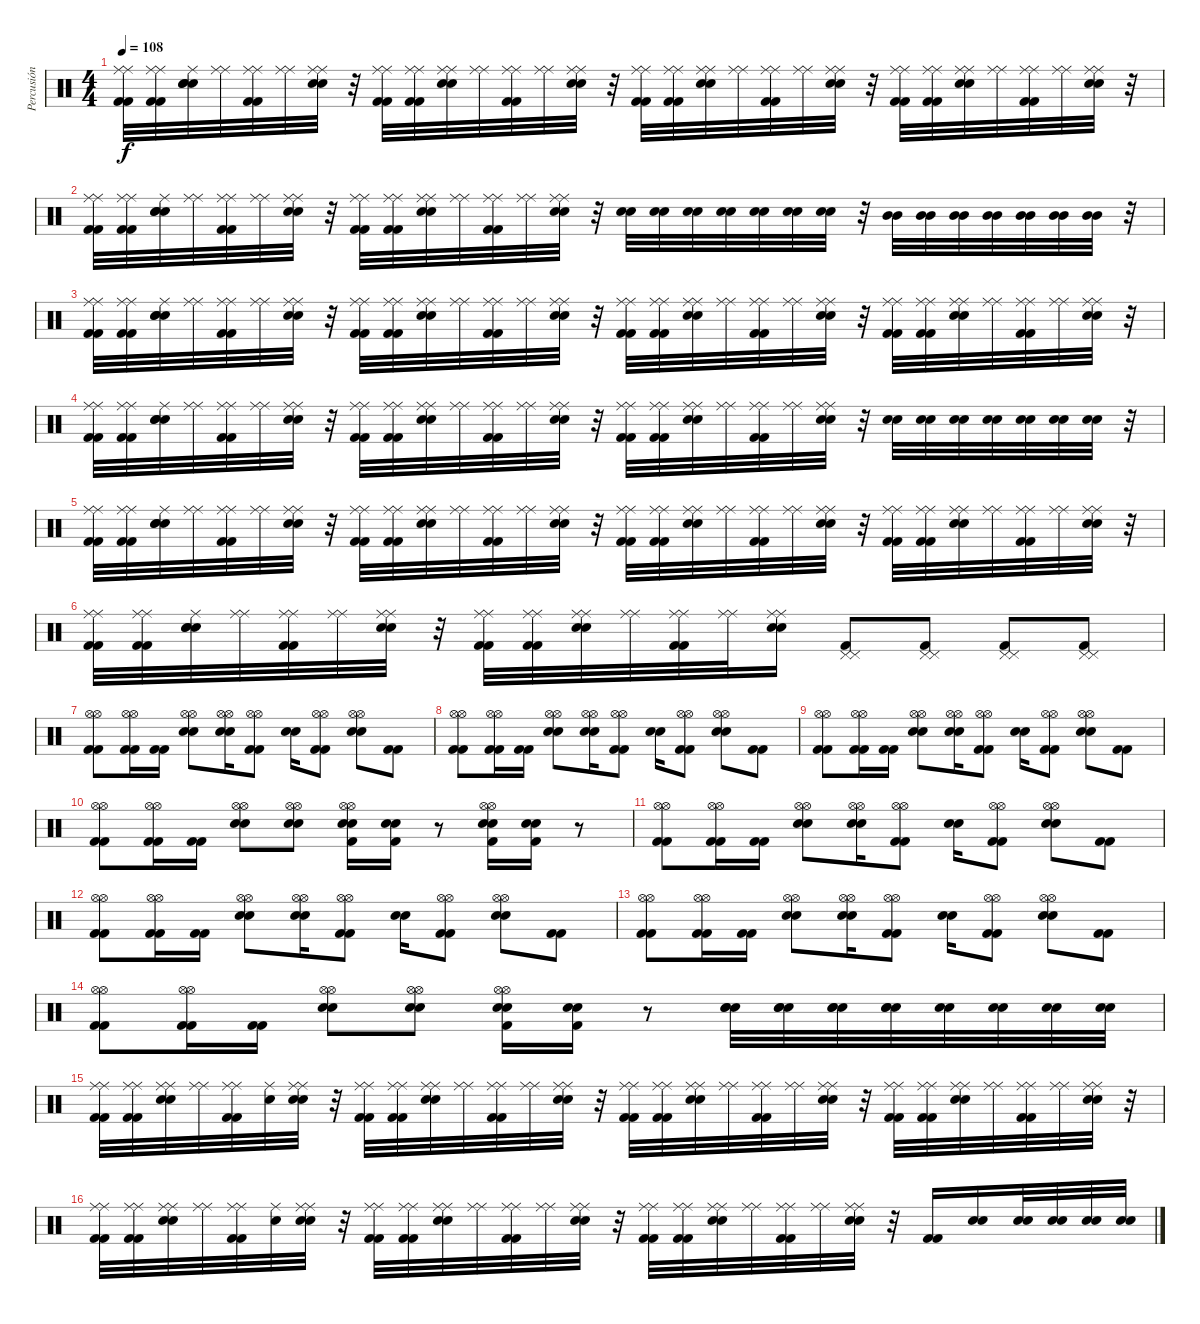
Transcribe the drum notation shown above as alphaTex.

\track ("Percusión" "Percusión") {instrument percussion}
\staff {score}
\articulation defaults
\ts (4 4)
\tempo 108
\clef neutral
\ks c
("Kick (hit) 2" "Kick (hit) 2" "Ride (middle)" "Ride (middle)").32{dy f} ("Kick (hit) 2" "Kick (hit) 2" "Ride (middle)" "Ride (middle)").32 ("Snare (hit) 2" "Snare (hit) 2" "Ride (middle)" "Snare (hit)").32 ("Ride (middle)" "Ride (middle)").32 ("Kick (hit) 2" "Kick (hit) 2" "Ride (middle)" "Ride (middle)").32 ("Ride (middle)" "Ride (middle)").32 ("Snare (hit) 2" "Snare (hit) 2" "Ride (middle)" "Ride (middle)").32 r.32 ("Kick (hit) 2" "Kick (hit) 2" "Ride (middle)" "Ride (middle)").32 ("Kick (hit) 2" "Kick (hit) 2" "Ride (middle)" "Ride (middle)").32 ("Snare (hit) 2" "Snare (hit) 2" "Ride (middle)" "Ride (middle)").32 ("Ride (middle)" "Ride (middle)").32 ("Kick (hit) 2" "Kick (hit) 2" "Ride (middle)" "Ride (middle)").32 ("Ride (middle)" "Ride (middle)").32 ("Snare (hit) 2" "Snare (hit) 2" "Ride (middle)" "Ride (middle)").32 r.32 ("Kick (hit) 2" "Kick (hit) 2" "Ride (middle)" "Ride (middle)").32 ("Kick (hit) 2" "Kick (hit) 2" "Ride (middle)" "Ride (middle)").32 ("Snare (hit) 2" "Snare (hit) 2" "Ride (middle)" "Ride (middle)").32 ("Ride (middle)" "Ride (middle)").32 ("Kick (hit) 2" "Kick (hit) 2" "Ride (middle)" "Ride (middle)").32 ("Ride (middle)" "Ride (middle)").32 ("Snare (hit) 2" "Snare (hit) 2" "Ride (middle)" "Ride (middle)").32 r.32 ("Kick (hit) 2" "Kick (hit) 2" "Ride (middle)" "Ride (middle)").32 ("Kick (hit) 2" "Kick (hit) 2" "Ride (middle)" "Ride (middle)").32 ("Snare (hit) 2" "Snare (hit) 2" "Ride (middle)" "Ride (middle)").32 ("Ride (middle)" "Ride (middle)").32 ("Kick (hit) 2" "Kick (hit) 2" "Ride (middle)" "Ride (middle)").32 ("Ride (middle)" "Ride (middle)").32 ("Snare (hit) 2" "Snare (hit) 2" "Ride (middle)" "Ride (middle)").32 r.32 |
("Kick (hit) 2" "Kick (hit) 2" "Ride (middle)" "Ride (middle)").32 ("Kick (hit) 2" "Kick (hit) 2" "Ride (middle)" "Ride (middle)").32 ("Snare (hit) 2" "Snare (hit) 2" "Ride (middle)" "Snare (hit)").32 ("Ride (middle)" "Ride (middle)").32 ("Kick (hit) 2" "Kick (hit) 2" "Ride (middle)" "Ride (middle)").32 ("Ride (middle)" "Ride (middle)").32 ("Snare (hit) 2" "Snare (hit) 2" "Ride (middle)" "Ride (middle)").32 r.32 ("Kick (hit) 2" "Kick (hit) 2" "Ride (middle)" "Ride (middle)").32 ("Kick (hit) 2" "Kick (hit) 2" "Ride (middle)" "Ride (middle)").32 ("Snare (hit) 2" "Snare (hit) 2" "Ride (middle)" "Ride (middle)").32 ("Ride (middle)" "Ride (middle)").32 ("Kick (hit) 2" "Kick (hit) 2" "Ride (middle)" "Ride (middle)").32 ("Ride (middle)" "Ride (middle)").32 ("Snare (hit) 2" "Snare (hit) 2" "Ride (middle)" "Ride (middle)").32 r.32 ("Snare (hit) 2" "Snare (hit) 2").32 ("Snare (hit) 2" "Snare (hit) 2").32 ("Snare (hit) 2" "Snare (hit) 2").32 ("Snare (hit) 2" "Snare (hit) 2").32 ("Snare (hit) 2" "Snare (hit) 2").32 ("Snare (hit) 2" "Snare (hit) 2").32 ("Snare (hit) 2" "Snare (hit) 2").32 r.32 ("Mid Tom (hit)" "Mid Tom (hit)").32 ("Mid Tom (hit)" "Mid Tom (hit)").32 ("Mid Tom (hit)" "Mid Tom (hit)").32 ("Mid Tom (hit)" "Mid Tom (hit)").32 ("Mid Tom (hit)" "Mid Tom (hit)").32 ("Mid Tom (hit)" "Mid Tom (hit)").32 ("Mid Tom (hit)" "Mid Tom (hit)").32 r.32 |
("Kick (hit) 2" "Kick (hit) 2" "Ride (middle)" "Ride (middle)").32 ("Kick (hit) 2" "Kick (hit) 2" "Ride (middle)" "Ride (middle)").32 ("Snare (hit) 2" "Snare (hit) 2" "Ride (middle)" "Snare (hit)").32 ("Ride (middle)" "Ride (middle)").32 ("Kick (hit) 2" "Kick (hit) 2" "Ride (middle)" "Ride (middle)").32 ("Ride (middle)" "Ride (middle)").32 ("Snare (hit) 2" "Snare (hit) 2" "Ride (middle)" "Ride (middle)").32 r.32 ("Kick (hit) 2" "Kick (hit) 2" "Ride (middle)" "Ride (middle)").32 ("Kick (hit) 2" "Kick (hit) 2" "Ride (middle)" "Ride (middle)").32 ("Snare (hit) 2" "Snare (hit) 2" "Ride (middle)" "Ride (middle)").32 ("Ride (middle)" "Ride (middle)").32 ("Kick (hit) 2" "Kick (hit) 2" "Ride (middle)" "Ride (middle)").32 ("Ride (middle)" "Ride (middle)").32 ("Snare (hit) 2" "Snare (hit) 2" "Ride (middle)" "Ride (middle)").32 r.32 ("Kick (hit) 2" "Kick (hit) 2" "Ride (middle)" "Ride (middle)").32 ("Kick (hit) 2" "Kick (hit) 2" "Ride (middle)" "Ride (middle)").32 ("Snare (hit) 2" "Snare (hit) 2" "Ride (middle)" "Ride (middle)").32 ("Ride (middle)" "Ride (middle)").32 ("Kick (hit) 2" "Kick (hit) 2" "Ride (middle)" "Ride (middle)").32 ("Ride (middle)" "Ride (middle)").32 ("Snare (hit) 2" "Snare (hit) 2" "Ride (middle)" "Ride (middle)").32 r.32 ("Kick (hit) 2" "Kick (hit) 2" "Ride (middle)" "Ride (middle)").32 ("Kick (hit) 2" "Kick (hit) 2" "Ride (middle)" "Ride (middle)").32 ("Snare (hit) 2" "Snare (hit) 2" "Ride (middle)" "Ride (middle)").32 ("Ride (middle)" "Ride (middle)").32 ("Kick (hit) 2" "Kick (hit) 2" "Ride (middle)" "Ride (middle)").32 ("Ride (middle)" "Ride (middle)").32 ("Snare (hit) 2" "Snare (hit) 2" "Ride (middle)" "Ride (middle)").32 r.32 |
("Kick (hit) 2" "Kick (hit) 2" "Ride (middle)" "Ride (middle)").32 ("Kick (hit) 2" "Kick (hit) 2" "Ride (middle)" "Ride (middle)").32 ("Snare (hit) 2" "Snare (hit) 2" "Ride (middle)" "Snare (hit)").32 ("Ride (middle)" "Ride (middle)").32 ("Kick (hit) 2" "Kick (hit) 2" "Ride (middle)" "Ride (middle)").32 ("Ride (middle)" "Ride (middle)").32 ("Snare (hit) 2" "Snare (hit) 2" "Ride (middle)" "Ride (middle)").32 r.32 ("Kick (hit) 2" "Kick (hit) 2" "Ride (middle)" "Ride (middle)").32 ("Kick (hit) 2" "Kick (hit) 2" "Ride (middle)" "Ride (middle)").32 ("Snare (hit) 2" "Snare (hit) 2" "Ride (middle)" "Ride (middle)").32 ("Ride (middle)" "Ride (middle)").32 ("Kick (hit) 2" "Kick (hit) 2" "Ride (middle)" "Ride (middle)").32 ("Ride (middle)" "Ride (middle)").32 ("Snare (hit) 2" "Snare (hit) 2" "Ride (middle)" "Ride (middle)").32 r.32 ("Kick (hit) 2" "Kick (hit) 2" "Ride (middle)" "Ride (middle)").32 ("Kick (hit) 2" "Kick (hit) 2" "Ride (middle)" "Ride (middle)").32 ("Snare (hit) 2" "Snare (hit) 2" "Ride (middle)" "Ride (middle)").32 ("Ride (middle)" "Ride (middle)").32 ("Kick (hit) 2" "Kick (hit) 2" "Ride (middle)" "Ride (middle)").32 ("Ride (middle)" "Ride (middle)").32 ("Snare (hit) 2" "Snare (hit) 2" "Ride (middle)" "Ride (middle)").32 r.32 ("Snare (hit) 2" "Snare (hit) 2").32 ("Snare (hit) 2" "Snare (hit) 2").32 ("Snare (hit) 2" "Snare (hit) 2").32 ("Snare (hit) 2" "Snare (hit) 2").32 ("Snare (hit) 2" "Snare (hit) 2").32 ("Snare (hit) 2" "Snare (hit) 2").32 ("Snare (hit) 2" "Snare (hit) 2").32 r.32 |
("Kick (hit) 2" "Kick (hit) 2" "Ride (middle)" "Ride (middle)").32 ("Kick (hit) 2" "Kick (hit) 2" "Ride (middle)" "Ride (middle)").32 ("Snare (hit) 2" "Snare (hit) 2" "Ride (middle)" "Snare (hit)").32 ("Ride (middle)" "Ride (middle)").32 ("Kick (hit) 2" "Kick (hit) 2" "Ride (middle)" "Ride (middle)").32 ("Ride (middle)" "Ride (middle)").32 ("Snare (hit) 2" "Snare (hit) 2" "Ride (middle)" "Ride (middle)").32 r.32 ("Kick (hit) 2" "Kick (hit) 2" "Ride (middle)" "Ride (middle)").32 ("Kick (hit) 2" "Kick (hit) 2" "Ride (middle)" "Ride (middle)").32 ("Snare (hit) 2" "Snare (hit) 2" "Ride (middle)" "Ride (middle)").32 ("Ride (middle)" "Ride (middle)").32 ("Kick (hit) 2" "Kick (hit) 2" "Ride (middle)" "Ride (middle)").32 ("Ride (middle)" "Ride (middle)").32 ("Snare (hit) 2" "Snare (hit) 2" "Ride (middle)" "Ride (middle)").32 r.32 ("Kick (hit) 2" "Kick (hit) 2" "Ride (middle)" "Ride (middle)").32 ("Kick (hit) 2" "Kick (hit) 2" "Ride (middle)" "Ride (middle)").32 ("Snare (hit) 2" "Snare (hit) 2" "Ride (middle)" "Ride (middle)").32 ("Ride (middle)" "Ride (middle)").32 ("Kick (hit) 2" "Kick (hit) 2" "Ride (middle)" "Ride (middle)").32 ("Ride (middle)" "Ride (middle)").32 ("Snare (hit) 2" "Snare (hit) 2" "Ride (middle)" "Ride (middle)").32 r.32 ("Kick (hit) 2" "Kick (hit) 2" "Ride (middle)" "Ride (middle)").32 ("Kick (hit) 2" "Kick (hit) 2" "Ride (middle)" "Ride (middle)").32 ("Snare (hit) 2" "Snare (hit) 2" "Ride (middle)" "Ride (middle)").32 ("Ride (middle)" "Ride (middle)").32 ("Kick (hit) 2" "Kick (hit) 2" "Ride (middle)" "Ride (middle)").32 ("Ride (middle)" "Ride (middle)").32 ("Snare (hit) 2" "Snare (hit) 2" "Ride (middle)" "Ride (middle)").32 r.32 |
("Kick (hit) 2" "Kick (hit) 2" "Ride (middle)" "Ride (middle)").32 ("Kick (hit) 2" "Kick (hit) 2" "Ride (middle)" "Ride (middle)").32 ("Snare (hit) 2" "Snare (hit) 2" "Ride (middle)" "Snare (hit)").32 ("Ride (middle)" "Ride (middle)").32 ("Kick (hit) 2" "Kick (hit) 2" "Ride (middle)" "Ride (middle)").32 ("Ride (middle)" "Ride (middle)").32 ("Snare (hit) 2" "Snare (hit) 2" "Ride (middle)" "Ride (middle)").32 r.32 ("Kick (hit) 2" "Kick (hit) 2" "Ride (middle)" "Ride (middle)").32 ("Kick (hit) 2" "Kick (hit) 2" "Ride (middle)" "Ride (middle)").32 ("Snare (hit) 2" "Snare (hit) 2" "Ride (middle)" "Ride (middle)").32 ("Ride (middle)" "Ride (middle)").32 ("Kick (hit) 2" "Kick (hit) 2" "Ride (middle)" "Ride (middle)").32 ("Ride (middle)" "Ride (middle)").32 ("Snare (hit) 2" "Snare (hit) 2" "Ride (middle)" "Ride (middle)").16 ("Kick (hit) 2" "Pedal Hi-Hat (hit)" "Pedal Hi-Hat (hit)").8 ("Kick (hit) 2" "Pedal Hi-Hat (hit)" "Pedal Hi-Hat (hit)").8 ("Kick (hit) 2" "Pedal Hi-Hat (hit)" "Pedal Hi-Hat (hit)").8 ("Kick (hit) 2" "Pedal Hi-Hat (hit)" "Pedal Hi-Hat (hit)").8 |
("Kick (hit) 2" "Kick (hit) 2" "Hi-Hat (open)" "Hi-Hat (open)").8 ("Kick (hit) 2" "Kick (hit) 2" "Hi-Hat (open)" "Hi-Hat (open)").16 ("Kick (hit) 2" "Kick (hit) 2").16 ("Snare (hit) 2" "Snare (hit) 2" "Hi-Hat (open)" "Hi-Hat (open)").8 ("Snare (hit) 2" "Snare (hit) 2" "Hi-Hat (open)" "Hi-Hat (open)").16 ("Kick (hit) 2" "Kick (hit) 2" "Hi-Hat (open)" "Hi-Hat (open)").8 ("Snare (hit) 2" "Snare (hit) 2").16 ("Kick (hit) 2" "Kick (hit) 2" "Hi-Hat (open)" "Hi-Hat (open)").8 ("Snare (hit) 2" "Snare (hit) 2" "Hi-Hat (open)" "Hi-Hat (open)").8 ("Kick (hit) 2" "Kick (hit) 2").8 |
("Kick (hit) 2" "Kick (hit) 2" "Hi-Hat (open)" "Hi-Hat (open)").8 ("Kick (hit) 2" "Kick (hit) 2" "Hi-Hat (open)" "Hi-Hat (open)").16 ("Kick (hit) 2" "Kick (hit) 2").16 ("Snare (hit) 2" "Snare (hit) 2" "Hi-Hat (open)" "Hi-Hat (open)").8 ("Snare (hit) 2" "Snare (hit) 2" "Hi-Hat (open)" "Hi-Hat (open)").16 ("Kick (hit) 2" "Kick (hit) 2" "Hi-Hat (open)" "Hi-Hat (open)").8 ("Snare (hit) 2" "Snare (hit) 2").16 ("Kick (hit) 2" "Kick (hit) 2" "Hi-Hat (open)" "Hi-Hat (open)").8 ("Snare (hit) 2" "Snare (hit) 2" "Hi-Hat (open)" "Hi-Hat (open)").8 ("Kick (hit) 2" "Kick (hit) 2").8 |
("Kick (hit) 2" "Kick (hit) 2" "Hi-Hat (open)" "Hi-Hat (open)").8 ("Kick (hit) 2" "Kick (hit) 2" "Hi-Hat (open)" "Hi-Hat (open)").16 ("Kick (hit) 2" "Kick (hit) 2").16 ("Snare (hit) 2" "Snare (hit) 2" "Hi-Hat (open)" "Hi-Hat (open)").8 ("Snare (hit) 2" "Snare (hit) 2" "Hi-Hat (open)" "Hi-Hat (open)").16 ("Kick (hit) 2" "Kick (hit) 2" "Hi-Hat (open)" "Hi-Hat (open)").8 ("Snare (hit) 2" "Snare (hit) 2").16 ("Kick (hit) 2" "Kick (hit) 2" "Hi-Hat (open)" "Hi-Hat (open)").8 ("Snare (hit) 2" "Snare (hit) 2" "Hi-Hat (open)" "Hi-Hat (open)").8 ("Kick (hit) 2" "Kick (hit) 2").8 |
("Kick (hit) 2" "Kick (hit) 2" "Hi-Hat (open)" "Hi-Hat (open)").8 ("Kick (hit) 2" "Kick (hit) 2" "Hi-Hat (open)" "Hi-Hat (open)").16 ("Kick (hit) 2" "Kick (hit) 2").16 ("Snare (hit) 2" "Snare (hit) 2" "Hi-Hat (open)" "Hi-Hat (open)").8 ("Snare (hit) 2" "Snare (hit) 2" "Hi-Hat (open)" "Hi-Hat (open)").8 ("Snare (hit) 2" "Snare (hit) 2" "Kick (hit) 2" "Hi-Hat (open)" "Hi-Hat (open)").16 ("Snare (hit) 2" "Snare (hit) 2" "Kick (hit) 2").16 r.8 ("Snare (hit) 2" "Snare (hit) 2" "Kick (hit) 2" "Hi-Hat (open)" "Hi-Hat (open)").16 ("Snare (hit) 2" "Snare (hit) 2" "Kick (hit) 2").16 r.8 |
("Kick (hit) 2" "Kick (hit) 2" "Hi-Hat (open)" "Hi-Hat (open)").8 ("Kick (hit) 2" "Kick (hit) 2" "Hi-Hat (open)" "Hi-Hat (open)").16 ("Kick (hit) 2" "Kick (hit) 2").16 ("Snare (hit) 2" "Snare (hit) 2" "Hi-Hat (open)" "Hi-Hat (open)").8 ("Snare (hit) 2" "Snare (hit) 2" "Hi-Hat (open)" "Hi-Hat (open)").16 ("Kick (hit) 2" "Kick (hit) 2" "Hi-Hat (open)" "Hi-Hat (open)").8 ("Snare (hit) 2" "Snare (hit) 2").16 ("Kick (hit) 2" "Kick (hit) 2" "Hi-Hat (open)" "Hi-Hat (open)").8 ("Snare (hit) 2" "Snare (hit) 2" "Hi-Hat (open)" "Hi-Hat (open)").8 ("Kick (hit) 2" "Kick (hit) 2").8 |
("Kick (hit) 2" "Kick (hit) 2" "Hi-Hat (open)" "Hi-Hat (open)").8 ("Kick (hit) 2" "Kick (hit) 2" "Hi-Hat (open)" "Hi-Hat (open)").16 ("Kick (hit) 2" "Kick (hit) 2").16 ("Snare (hit) 2" "Snare (hit) 2" "Hi-Hat (open)" "Hi-Hat (open)").8 ("Snare (hit) 2" "Snare (hit) 2" "Hi-Hat (open)" "Hi-Hat (open)").16 ("Kick (hit) 2" "Kick (hit) 2" "Hi-Hat (open)" "Hi-Hat (open)").8 ("Snare (hit) 2" "Snare (hit) 2").16 ("Kick (hit) 2" "Kick (hit) 2" "Hi-Hat (open)" "Hi-Hat (open)").8 ("Snare (hit) 2" "Snare (hit) 2" "Hi-Hat (open)" "Hi-Hat (open)").8 ("Kick (hit) 2" "Kick (hit) 2").8 |
("Kick (hit) 2" "Kick (hit) 2" "Hi-Hat (open)" "Hi-Hat (open)").8 ("Kick (hit) 2" "Kick (hit) 2" "Hi-Hat (open)" "Hi-Hat (open)").16 ("Kick (hit) 2" "Kick (hit) 2").16 ("Snare (hit) 2" "Snare (hit) 2" "Hi-Hat (open)" "Hi-Hat (open)").8 ("Snare (hit) 2" "Snare (hit) 2" "Hi-Hat (open)" "Hi-Hat (open)").16 ("Kick (hit) 2" "Kick (hit) 2" "Hi-Hat (open)" "Hi-Hat (open)").8 ("Snare (hit) 2" "Snare (hit) 2").16 ("Kick (hit) 2" "Kick (hit) 2" "Hi-Hat (open)" "Hi-Hat (open)").8 ("Snare (hit) 2" "Snare (hit) 2" "Hi-Hat (open)" "Hi-Hat (open)").8 ("Kick (hit) 2" "Kick (hit) 2").8 |
("Kick (hit) 2" "Kick (hit) 2" "Hi-Hat (open)" "Hi-Hat (open)").8 ("Kick (hit) 2" "Kick (hit) 2" "Hi-Hat (open)" "Hi-Hat (open)").16 ("Kick (hit) 2" "Kick (hit) 2").16 ("Snare (hit) 2" "Snare (hit) 2" "Hi-Hat (open)" "Hi-Hat (open)").8 ("Snare (hit) 2" "Snare (hit) 2" "Hi-Hat (open)" "Hi-Hat (open)").8 ("Snare (hit) 2" "Snare (hit) 2" "Kick (hit) 2" "Hi-Hat (open)" "Hi-Hat (open)").16 ("Snare (hit) 2" "Snare (hit) 2" "Kick (hit) 2").16 r.8 ("Snare (hit) 2" "Snare (hit) 2" "Snare (hit) 2").32 ("Snare (hit) 2" "Snare (hit) 2" "Snare (hit) 2").32 ("Snare (hit) 2" "Snare (hit) 2" "Snare (hit) 2").32 ("Snare (hit) 2" "Snare (hit) 2" "Snare (hit) 2").32 ("Snare (hit) 2" "Snare (hit) 2").32 ("Snare (hit) 2" "Snare (hit) 2").32 ("Snare (hit) 2" "Snare (hit) 2").32 ("Snare (hit) 2" "Snare (hit) 2").32 |
("Kick (hit) 2" "Kick (hit) 2" "Ride (middle)" "Ride (middle)").32 ("Kick (hit) 2" "Kick (hit) 2" "Ride (middle)" "Ride (middle)").32 ("Snare (hit) 2" "Snare (hit) 2" "Ride (middle)" "Ride (middle)").32 ("Ride (middle)" "Ride (middle)").32 ("Kick (hit) 2" "Kick (hit) 2" "Ride (middle)" "Ride (middle)").32 ("Ride (middle)" "Snare (hit)").32 ("Snare (hit) 2" "Snare (hit) 2" "Ride (middle)" "Ride (middle)").32 r.32 ("Kick (hit) 2" "Kick (hit) 2" "Ride (middle)" "Ride (middle)").32 ("Kick (hit) 2" "Kick (hit) 2" "Ride (middle)" "Ride (middle)").32 ("Snare (hit) 2" "Snare (hit) 2" "Ride (middle)" "Ride (middle)").32 ("Ride (middle)" "Ride (middle)").32 ("Kick (hit) 2" "Kick (hit) 2" "Ride (middle)" "Ride (middle)").32 ("Ride (middle)" "Ride (middle)").32 ("Snare (hit) 2" "Snare (hit) 2" "Ride (middle)" "Ride (middle)").32 r.32 ("Kick (hit) 2" "Kick (hit) 2" "Ride (middle)" "Ride (middle)").32 ("Kick (hit) 2" "Kick (hit) 2" "Ride (middle)" "Ride (middle)").32 ("Snare (hit) 2" "Snare (hit) 2" "Ride (middle)" "Ride (middle)").32 ("Ride (middle)" "Ride (middle)").32 ("Kick (hit) 2" "Kick (hit) 2" "Ride (middle)" "Ride (middle)").32 ("Ride (middle)" "Ride (middle)").32 ("Snare (hit) 2" "Snare (hit) 2" "Ride (middle)" "Ride (middle)").32 r.32 ("Kick (hit) 2" "Kick (hit) 2" "Ride (middle)" "Ride (middle)").32 ("Kick (hit) 2" "Kick (hit) 2" "Ride (middle)" "Ride (middle)").32 ("Snare (hit) 2" "Snare (hit) 2" "Ride (middle)" "Ride (middle)").32 ("Ride (middle)" "Ride (middle)").32 ("Kick (hit) 2" "Kick (hit) 2" "Ride (middle)" "Ride (middle)").32 ("Ride (middle)" "Ride (middle)").32 ("Snare (hit) 2" "Snare (hit) 2" "Ride (middle)" "Ride (middle)").32 r.32 |
("Kick (hit) 2" "Kick (hit) 2" "Ride (middle)" "Ride (middle)").32 ("Kick (hit) 2" "Kick (hit) 2" "Ride (middle)" "Ride (middle)").32 ("Snare (hit) 2" "Snare (hit) 2" "Ride (middle)" "Ride (middle)").32 ("Ride (middle)" "Ride (middle)").32 ("Kick (hit) 2" "Kick (hit) 2" "Ride (middle)" "Ride (middle)").32 ("Ride (middle)" "Snare (hit)").32 ("Snare (hit) 2" "Snare (hit) 2" "Ride (middle)" "Ride (middle)").32 r.32 ("Kick (hit) 2" "Kick (hit) 2" "Ride (middle)" "Ride (middle)").32 ("Kick (hit) 2" "Kick (hit) 2" "Ride (middle)" "Ride (middle)").32 ("Snare (hit) 2" "Snare (hit) 2" "Ride (middle)" "Ride (middle)").32 ("Ride (middle)" "Ride (middle)").32 ("Kick (hit) 2" "Kick (hit) 2" "Ride (middle)" "Ride (middle)").32 ("Ride (middle)" "Ride (middle)").32 ("Snare (hit) 2" "Snare (hit) 2" "Ride (middle)" "Ride (middle)").32 r.32 ("Kick (hit) 2" "Kick (hit) 2" "Ride (middle)" "Ride (middle)").32 ("Kick (hit) 2" "Kick (hit) 2" "Ride (middle)" "Ride (middle)").32 ("Snare (hit) 2" "Snare (hit) 2" "Ride (middle)" "Ride (middle)").32 ("Ride (middle)" "Ride (middle)").32 ("Kick (hit) 2" "Kick (hit) 2" "Ride (middle)" "Ride (middle)").32 ("Ride (middle)" "Ride (middle)").32 ("Snare (hit) 2" "Snare (hit) 2" "Ride (middle)" "Ride (middle)").32 r.32 ("Kick (hit) 2" "Kick (hit) 2").16 ("Snare (hit) 2" "Snare (hit) 2").16 ("Snare (hit) 2" "Snare (hit) 2").32 ("Snare (hit) 2" "Snare (hit) 2").32 ("Snare (hit) 2" "Snare (hit) 2").32 ("Snare (hit) 2" "Snare (hit) 2").32
